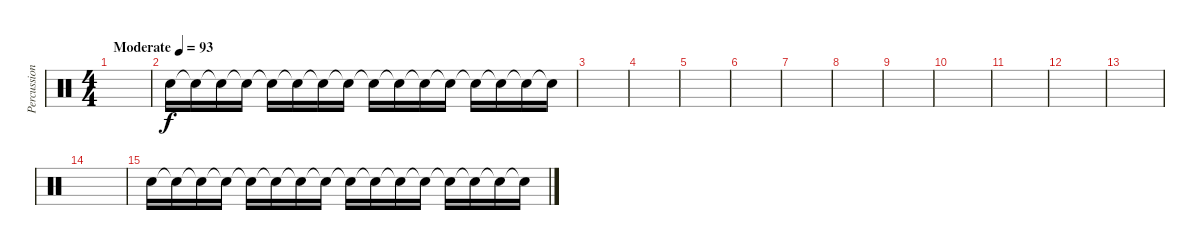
\track ("Percussion" "Percussion") {instrument percussion}
\staff {score}
\articulation defaults
\ts (4 4)
\tempo (93 "Moderate")
\clef neutral
\ks c
|
"Snare (hit)".16 "Snare (hit)"{t}.16 "Snare (hit)"{t}.16 "Snare (hit)"{t}.16 "Snare (hit)"{t}.16 "Snare (hit)"{t}.16 "Snare (hit)"{t}.16 "Snare (hit)"{t}.16 "Snare (hit)"{t}.16 "Snare (hit)"{t}.16 "Snare (hit)"{t}.16 "Snare (hit)"{t}.16 "Snare (hit)"{t}.16 "Snare (hit)"{t}.16 "Snare (hit)"{t}.16 "Snare (hit)"{t}.16 |
|
|
|
|
|
|
|
|
|
|
|
|
"Snare (hit)".16 "Snare (hit)"{t}.16 "Snare (hit)"{t}.16 "Snare (hit)"{t}.16 "Snare (hit)"{t}.16 "Snare (hit)"{t}.16 "Snare (hit)"{t}.16 "Snare (hit)"{t}.16 "Snare (hit)"{t}.16 "Snare (hit)"{t}.16 "Snare (hit)"{t}.16 "Snare (hit)"{t}.16 "Snare (hit)"{t}.16 "Snare (hit)"{t}.16 "Snare (hit)"{t}.16 "Snare (hit)"{t}.16
